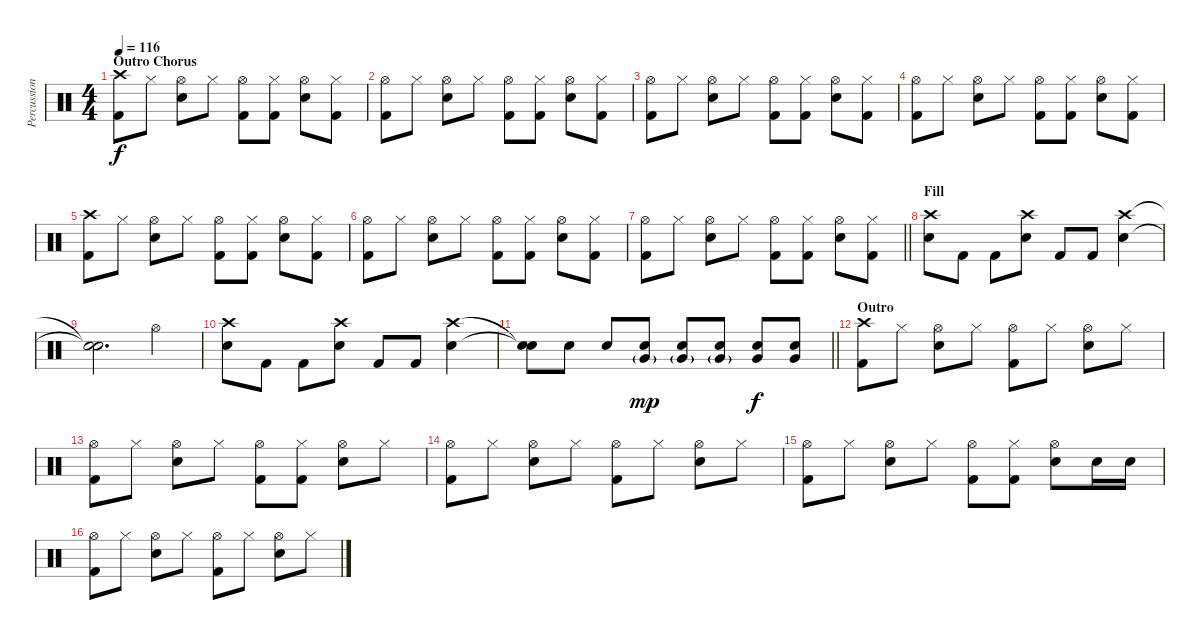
\track ("Percussion" "Percussion") {instrument percussion}
\staff {score}
\articulation defaults
\ts (4 4)
\section ("" "Outro Chorus")
\tempo 116
\clef neutral
\ks c
("Crash high (hit)" "Kick (hit) 2").8{dy f} "Hi-Hat (closed)".8 ("Hi-Hat (open)" "Snare (hit) 2").8 "Hi-Hat (closed)".8 ("Hi-Hat (open)" "Kick (hit) 2").8 ("Hi-Hat (closed)" "Kick (hit) 2").8 ("Hi-Hat (open)" "Snare (hit) 2").8 ("Hi-Hat (closed)" "Kick (hit) 2").8 |
("Hi-Hat (open)" "Kick (hit) 2").8 "Hi-Hat (closed)".8 ("Hi-Hat (open)" "Snare (hit) 2").8 "Hi-Hat (closed)".8 ("Hi-Hat (open)" "Kick (hit) 2").8 ("Hi-Hat (closed)" "Kick (hit) 2").8 ("Hi-Hat (open)" "Snare (hit) 2").8 ("Hi-Hat (closed)" "Kick (hit) 2").8 |
("Hi-Hat (open)" "Kick (hit) 2").8 "Hi-Hat (closed)".8 ("Hi-Hat (open)" "Snare (hit) 2").8 "Hi-Hat (closed)".8 ("Hi-Hat (open)" "Kick (hit) 2").8 ("Hi-Hat (closed)" "Kick (hit) 2").8 ("Hi-Hat (open)" "Snare (hit) 2").8 ("Hi-Hat (closed)" "Kick (hit) 2").8 |
("Hi-Hat (open)" "Kick (hit) 2").8 "Hi-Hat (closed)".8 ("Hi-Hat (open)" "Snare (hit) 2").8 "Hi-Hat (closed)".8 ("Hi-Hat (open)" "Kick (hit) 2").8 ("Hi-Hat (closed)" "Kick (hit) 2").8 ("Hi-Hat (open)" "Snare (hit) 2").8 ("Hi-Hat (closed)" "Kick (hit) 2").8 |
("Crash high (hit)" "Kick (hit) 2").8 "Hi-Hat (closed)".8 ("Hi-Hat (open)" "Snare (hit) 2").8 "Hi-Hat (closed)".8 ("Hi-Hat (open)" "Kick (hit) 2").8 ("Hi-Hat (closed)" "Kick (hit) 2").8 ("Hi-Hat (open)" "Snare (hit) 2").8 ("Hi-Hat (closed)" "Kick (hit) 2").8 |
("Hi-Hat (open)" "Kick (hit) 2").8 "Hi-Hat (closed)".8 ("Hi-Hat (open)" "Snare (hit) 2").8 "Hi-Hat (closed)".8 ("Hi-Hat (open)" "Kick (hit) 2").8 ("Hi-Hat (closed)" "Kick (hit) 2").8 ("Hi-Hat (open)" "Snare (hit) 2").8 ("Hi-Hat (closed)" "Kick (hit) 2").8 |
\barLineRight lightlight
("Hi-Hat (open)" "Kick (hit) 2").8 "Hi-Hat (closed)".8 ("Hi-Hat (open)" "Snare (hit) 2").8 "Hi-Hat (closed)".8 ("Hi-Hat (open)" "Kick (hit) 2").8 ("Hi-Hat (closed)" "Kick (hit) 2").8 ("Hi-Hat (open)" "Snare (hit) 2").8 ("Hi-Hat (closed)" "Kick (hit) 2").8 |
\section ("" "Fill")
("Crash high (hit)" "Snare (hit) 2").8 "Kick (hit) 2".8 "Kick (hit) 2".8 ("Crash high (hit)" "Snare (hit) 2").8 "Kick (hit) 2".8 "Kick (hit) 2".8 ("Crash high (hit)" "Snare (hit) 2").4 |
("Snare (hit)"{t} "Snare (hit)"{t}).2{d} "Hi-Hat (open)".4 |
("Crash high (hit)" "Snare (hit) 2").8 "Kick (hit) 2".8 "Kick (hit) 2".8 ("Crash high (hit)" "Snare (hit) 2").8 "Kick (hit) 2".8 "Kick (hit) 2".8 ("Crash high (hit)" "Snare (hit) 2").4 |
\barLineRight lightlight
("Snare (hit)"{t} "Snare (hit) 2"{t}).8 "Snare (hit) 2".8 "Snare (hit) 2".8 ("Very Low Tom (hit)"{g} "Snare (hit) 2").8{dy mp} ("Very Low Tom (hit)"{g} "Snare (hit) 2").8 ("Very Low Tom (hit)"{g} "Snare (hit) 2").8 ("Very Low Tom (hit)" "Snare (hit) 2").8{dy f} ("Very Low Tom (hit)" "Snare (hit) 2").8 |
\section ("" "Outro")
("Crash high (hit)" "Kick (hit) 2").8 "Hi-Hat (closed)".8 ("Hi-Hat (open)" "Snare (hit) 2").8 "Hi-Hat (closed)".8 ("Hi-Hat (open)" "Kick (hit) 2").8 "Hi-Hat (closed)".8 ("Hi-Hat (open)" "Snare (hit) 2").8 "Hi-Hat (closed)".8 |
("Hi-Hat (open)" "Kick (hit) 2").8 "Hi-Hat (closed)".8 ("Hi-Hat (open)" "Snare (hit) 2").8 "Hi-Hat (closed)".8 ("Hi-Hat (open)" "Kick (hit) 2").8 ("Hi-Hat (closed)" "Kick (hit) 2").8 ("Hi-Hat (open)" "Snare (hit) 2").8 "Hi-Hat (closed)".8 |
("Hi-Hat (open)" "Kick (hit) 2").8 "Hi-Hat (closed)".8 ("Hi-Hat (open)" "Snare (hit) 2").8 "Hi-Hat (closed)".8 ("Hi-Hat (open)" "Kick (hit) 2").8 "Hi-Hat (closed)".8 ("Hi-Hat (open)" "Snare (hit) 2").8 "Hi-Hat (closed)".8 |
("Hi-Hat (open)" "Kick (hit) 2").8 "Hi-Hat (closed)".8 ("Hi-Hat (open)" "Snare (hit) 2").8 "Hi-Hat (closed)".8 ("Hi-Hat (open)" "Kick (hit) 2").8 ("Hi-Hat (closed)" "Kick (hit) 2").8 ("Hi-Hat (open)" "Snare (hit) 2").8 "Snare (hit) 2".16 "Snare (hit) 2".16 |
("Hi-Hat (open)" "Kick (hit) 2").8 "Hi-Hat (closed)".8 ("Hi-Hat (open)" "Snare (hit) 2").8 "Hi-Hat (closed)".8 ("Hi-Hat (open)" "Kick (hit) 2").8 "Hi-Hat (closed)".8 ("Hi-Hat (open)" "Snare (hit) 2").8 "Hi-Hat (closed)".8
